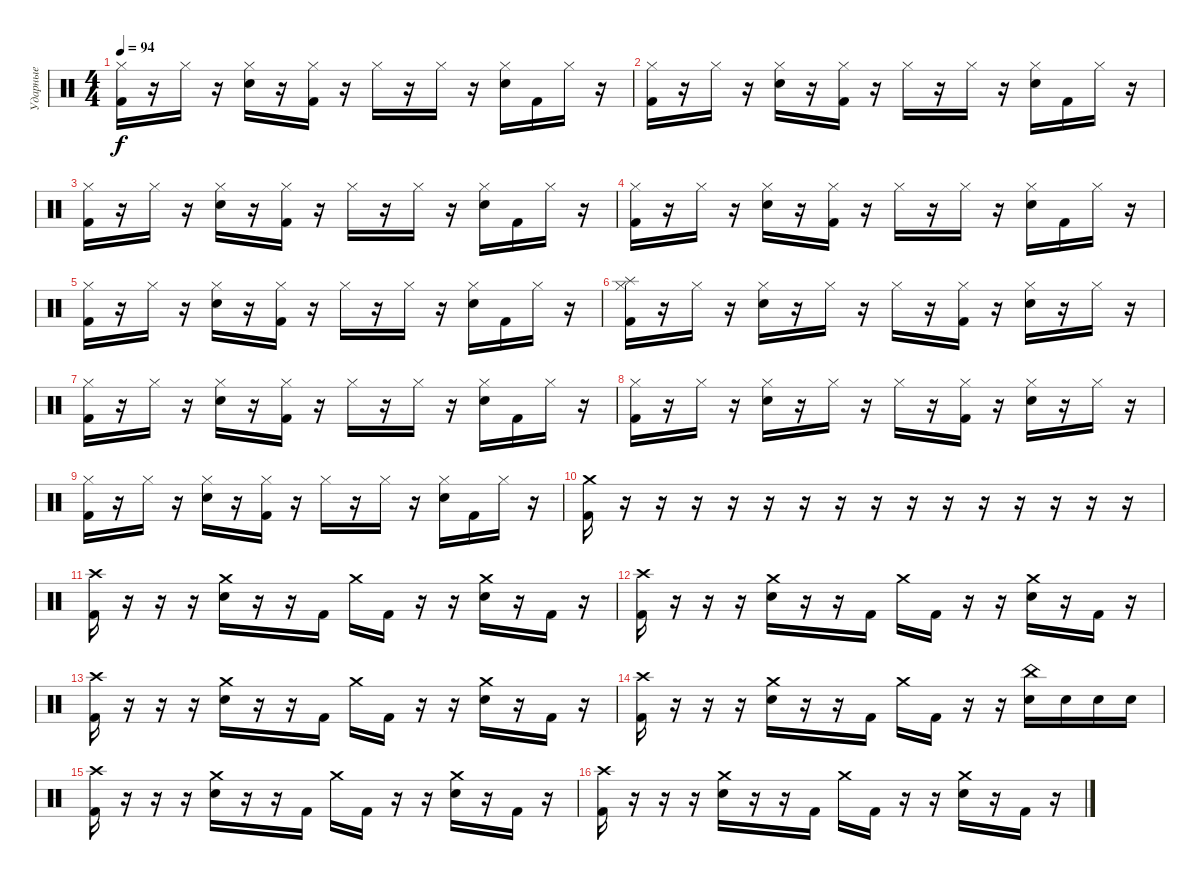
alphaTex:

\track ("Ударные" "Ударные") {instrument percussion}
\staff {score}
\articulation defaults
\ts (4 4)
\tempo 94
\clef neutral
\ks c
("Hi-Hat (closed)" "Kick (hit) 2").16{dy f} r.16 "Hi-Hat (closed)".16 r.16 ("Hi-Hat (closed)" "Snare (hit) 2").16 r.16 ("Hi-Hat (closed)" "Kick (hit) 2").16 r.16 "Hi-Hat (closed)".16 r.16 "Hi-Hat (closed)".16 r.16 ("Hi-Hat (closed)" "Snare (hit) 2").16 "Kick (hit) 2".16 "Hi-Hat (closed)".16 r.16 |
("Hi-Hat (closed)" "Kick (hit) 2").16 r.16 "Hi-Hat (closed)".16 r.16 ("Hi-Hat (closed)" "Snare (hit) 2").16 r.16 ("Hi-Hat (closed)" "Kick (hit) 2").16 r.16 "Hi-Hat (closed)".16 r.16 "Hi-Hat (closed)".16 r.16 ("Hi-Hat (closed)" "Snare (hit) 2").16 "Kick (hit) 2".16 "Hi-Hat (closed)".16 r.16 |
("Hi-Hat (closed)" "Kick (hit) 2").16 r.16 "Hi-Hat (closed)".16 r.16 ("Hi-Hat (closed)" "Snare (hit) 2").16 r.16 ("Hi-Hat (closed)" "Kick (hit) 2").16 r.16 "Hi-Hat (closed)".16 r.16 "Hi-Hat (closed)".16 r.16 ("Hi-Hat (closed)" "Snare (hit) 2").16 "Kick (hit) 2".16 "Hi-Hat (closed)".16 r.16 |
("Hi-Hat (closed)" "Kick (hit) 2").16 r.16 "Hi-Hat (closed)".16 r.16 ("Hi-Hat (closed)" "Snare (hit) 2").16 r.16 ("Hi-Hat (closed)" "Kick (hit) 2").16 r.16 "Hi-Hat (closed)".16 r.16 "Hi-Hat (closed)".16 r.16 ("Hi-Hat (closed)" "Snare (hit) 2").16 "Kick (hit) 2".16 "Hi-Hat (closed)".16 r.16 |
("Hi-Hat (closed)" "Kick (hit) 2").16 r.16 "Hi-Hat (closed)".16 r.16 ("Hi-Hat (closed)" "Snare (hit) 2").16 r.16 ("Hi-Hat (closed)" "Kick (hit) 2").16 r.16 "Hi-Hat (closed)".16 r.16 "Hi-Hat (closed)".16 r.16 ("Hi-Hat (closed)" "Snare (hit) 2").16 "Kick (hit) 2".16 "Hi-Hat (closed)".16 r.16 |
("Hi-Hat (closed)" "Splash (hit)" "Kick (hit) 2").16 r.16 "Hi-Hat (closed)".16 r.16 ("Hi-Hat (closed)" "Snare (hit) 2").16 r.16 "Hi-Hat (closed)".16 r.16 "Hi-Hat (closed)".16 r.16 ("Hi-Hat (closed)" "Kick (hit) 2").16 r.16 ("Hi-Hat (closed)" "Snare (hit) 2").16 r.16 "Hi-Hat (closed)".16 r.16 |
("Hi-Hat (closed)" "Kick (hit) 2").16 r.16 "Hi-Hat (closed)".16 r.16 ("Hi-Hat (closed)" "Snare (hit) 2").16 r.16 ("Hi-Hat (closed)" "Kick (hit) 2").16 r.16 "Hi-Hat (closed)".16 r.16 "Hi-Hat (closed)".16 r.16 ("Hi-Hat (closed)" "Snare (hit) 2").16 "Kick (hit) 2".16 "Hi-Hat (closed)".16 r.16 |
("Hi-Hat (closed)" "Kick (hit) 2").16 r.16 "Hi-Hat (closed)".16 r.16 ("Hi-Hat (closed)" "Snare (hit) 2").16 r.16 "Hi-Hat (closed)".16 r.16 "Hi-Hat (closed)".16 r.16 ("Hi-Hat (closed)" "Kick (hit) 2").16 r.16 ("Hi-Hat (closed)" "Snare (hit) 2").16 r.16 "Hi-Hat (closed)".16 r.16 |
("Hi-Hat (closed)" "Kick (hit) 2").16 r.16 "Hi-Hat (closed)".16 r.16 ("Hi-Hat (closed)" "Snare (hit) 2").16 r.16 ("Hi-Hat (closed)" "Kick (hit) 2").16 r.16 "Hi-Hat (closed)".16 r.16 "Hi-Hat (closed)".16 r.16 ("Hi-Hat (closed)" "Snare (hit) 2").16 "Kick (hit) 2".16 "Hi-Hat (closed)".16 r.16 |
("Crash medium (hit)" "Kick (hit) 2").16 r.16 r.16 r.16 r.16 r.16 r.16 r.16 r.16 r.16 r.16 r.16 r.16 r.16 r.16 r.16 |
("Crash high (hit)" "Kick (hit) 2").16 r.16 r.16 r.16 ("Crash medium (hit)" "Electric Snare (hit)").16 r.16 r.16 "Kick (hit) 2".16 "Crash medium (hit)".16 "Kick (hit) 2".16 r.16 r.16 ("Crash medium (hit)" "Electric Snare (hit)").16 r.16 "Kick (hit) 2".16 r.16 |
("Crash high (hit)" "Kick (hit) 2").16 r.16 r.16 r.16 ("Crash medium (hit)" "Electric Snare (hit)").16 r.16 r.16 "Kick (hit) 2".16 "Crash medium (hit)".16 "Kick (hit) 2".16 r.16 r.16 ("Crash medium (hit)" "Electric Snare (hit)").16 r.16 "Kick (hit) 2".16 r.16 |
("Crash high (hit)" "Kick (hit) 2").16 r.16 r.16 r.16 ("Crash medium (hit)" "Electric Snare (hit)").16 r.16 r.16 "Kick (hit) 2".16 "Crash medium (hit)".16 "Kick (hit) 2".16 r.16 r.16 ("Crash medium (hit)" "Electric Snare (hit)").16 r.16 "Kick (hit) 2".16 r.16 |
("Crash high (hit)" "Kick (hit) 2").16 r.16 r.16 r.16 ("Crash medium (hit)" "Electric Snare (hit)").16 r.16 r.16 "Kick (hit) 2".16 "Crash medium (hit)".16 "Kick (hit) 2".16 r.16 r.16 ("China (hit)" "Electric Snare (hit)").16 "Electric Snare (hit)".16 "Electric Snare (hit)".16 "Electric Snare (hit)".16 |
("Crash high (hit)" "Kick (hit) 2").16 r.16 r.16 r.16 ("Crash medium (hit)" "Electric Snare (hit)").16 r.16 r.16 "Kick (hit) 2".16 "Crash medium (hit)".16 "Kick (hit) 2".16 r.16 r.16 ("Crash medium (hit)" "Electric Snare (hit)").16 r.16 "Kick (hit) 2".16 r.16 |
("Crash high (hit)" "Kick (hit) 2").16 r.16 r.16 r.16 ("Crash medium (hit)" "Electric Snare (hit)").16 r.16 r.16 "Kick (hit) 2".16 "Crash medium (hit)".16 "Kick (hit) 2".16 r.16 r.16 ("Crash medium (hit)" "Electric Snare (hit)").16 r.16 "Kick (hit) 2".16 r.16
